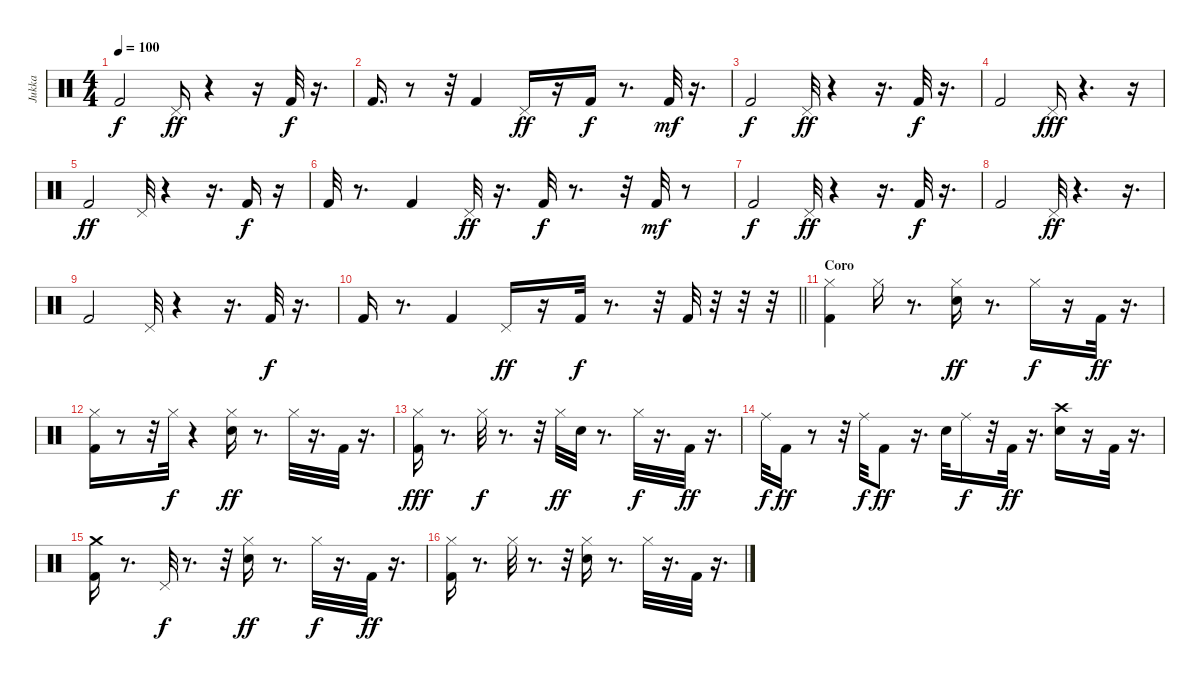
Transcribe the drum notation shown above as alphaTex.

\track ("Jukka" "Jukka") {instrument percussion}
\staff {score}
\articulation defaults
\ts (4 4)
\tempo 100
\clef neutral
\ks c "Kick (hit) 2".2{dy f} "Pedal Hi-Hat (hit)".16{dy ff}
r.4 r.16 "Kick (hit) 2".32{dy f} r.16{d} |
"Kick (hit) 2".16{d} r.8 r.32 "Kick (hit) 2".4 "Pedal Hi-Hat (hit)".16{dy ff} r.16 "Kick (hit) 2".16{dy f} r.8{d} "Kick (hit) 2".32{dy mf} r.16{d} |
"Kick (hit) 2".2{dy f} "Pedal Hi-Hat (hit)".32{dy ff} r.4 r.16{d} "Kick (hit) 2".32{dy f} r.16{d} |
"Kick (hit) 2".2 "Pedal Hi-Hat (hit)".16{dy fff} r.4{d} r.16 |
"Kick (hit) 2".2{dy ff} "Pedal Hi-Hat (hit)".32 r.4 r.16{d} "Kick (hit) 2".16{dy f} r.16 |
"Kick (hit) 2".32 r.8{d} "Kick (hit) 2".4 "Pedal Hi-Hat (hit)".32{dy ff} r.16{d} "Kick (hit) 2".32{dy f} r.8{d} r.32 "Kick (hit) 2".32{dy mf} r.8 |
"Kick (hit) 2".2{dy f} "Pedal Hi-Hat (hit)".32{dy ff} r.4 r.16{d} "Kick (hit) 2".32{dy f} r.16{d} |
"Kick (hit) 2".2 "Pedal Hi-Hat (hit)".32{dy ff} r.4{d} r.16{d} |
"Kick (hit) 2".2 "Pedal Hi-Hat (hit)".32 r.4 r.16{d} "Kick (hit) 2".32{dy f} r.16{d} |
\barLineRight lightlight "Kick (hit) 2".16
r.8{d} "Kick (hit) 2".4 "Pedal Hi-Hat (hit)".16{dy ff} r.16 "Kick (hit) 2".32{dy f} r.8{d} r.32 "Kick (hit) 2".32 r.32 r.32 r.32 |
\section ("" "Coro")
("Hi-Hat (closed)" "Kick (hit) 2").4 "Hi-Hat (closed)".16 r.8{d} ("Hi-Hat (closed)" "Electric Snare (hit)").16{dy ff} r.8{d} "Hi-Hat (closed)".16{dy f} r.16 "Kick (hit) 2".32{dy ff} r.16{d} |
("Hi-Hat (closed)" "Kick (hit) 2").16 r.8 r.32 "Hi-Hat (closed)".32{dy f} r.4 ("Hi-Hat (closed)" "Electric Snare (hit)").16{dy ff} r.8{d} "Hi-Hat (closed)".32 r.16{d} "Kick (hit) 2".32 r.16{d} |
("Hi-Hat (closed)" "Kick (hit) 2").16{dy fff} r.8{d} "Hi-Hat (closed)".32{dy f} r.8{d} r.32 "Hi-Hat (closed)".32{dy ff} "Electric Snare (hit)".32 r.8{d} "Hi-Hat (closed)".32{dy f} r.16{d} "Kick (hit) 2".32{dy ff} r.16{d} |
"Ride (middle)".32{dy f} "Kick (hit) 2".16{dy ff} r.8 r.32 "Ride (middle)".32{dy f} "Kick (hit) 2".8{dy ff} r.16{d} "Electric Snare (hit)".32 "Ride (middle)".16{dy f} r.32 "Kick (hit) 2".32{dy ff} r.16{d} ("Crash high (hit)" "Electric Snare (hit)").16 r.16 "Kick (hit) 2".32 r.16{d} |
("Crash medium (hit)" "Kick (hit) 2").16 r.8{d} "Pedal Hi-Hat (hit)".32{dy f} r.8{d} r.32 ("Hi-Hat (closed)" "Electric Snare (hit)").16{dy ff} r.8{d} "Hi-Hat (closed)".32{dy f} r.16{d} "Kick (hit) 2".32{dy ff} r.16{d} |
("Hi-Hat (closed)" "Kick (hit) 2").16 r.8{d} "Hi-Hat (closed)".32 r.8{d} r.32 ("Hi-Hat (closed)" "Electric Snare (hit)").16 r.8{d} "Hi-Hat (closed)".32 r.16{d} "Kick (hit) 2".32 r.16{d}
